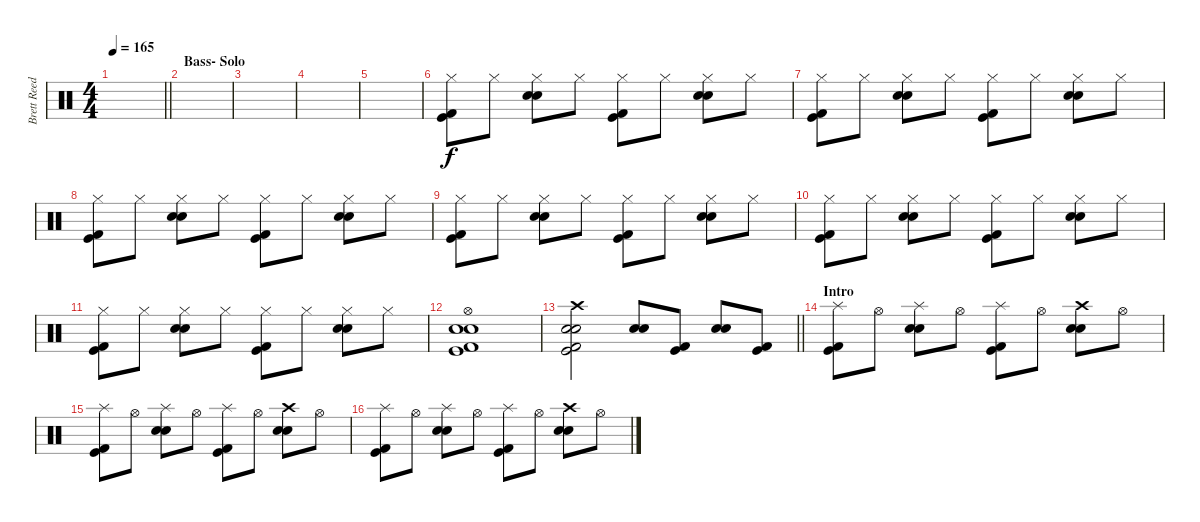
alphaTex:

\track ("Brett Reed" "Brett Reed") {instrument percussion}
\staff {score}
\articulation defaults
\ts (4 4)
\tempo 165
\clef neutral
\barLineRight lightlight
\ks c
|
\section ("" "Bass- Solo")
|
|
|
|
("Hi-Hat (closed)" "Kick (hit) 2" "Kick (hit)").8 "Hi-Hat (closed)".8 ("Hi-Hat (closed)" "Electric Snare (hit)" "Snare (hit) 2").8 "Hi-Hat (closed)".8 ("Hi-Hat (closed)" "Kick (hit) 2" "Kick (hit)").8 "Hi-Hat (closed)".8 ("Hi-Hat (closed)" "Electric Snare (hit)" "Snare (hit) 2").8 "Hi-Hat (closed)".8 |
("Hi-Hat (closed)" "Kick (hit) 2" "Kick (hit)").8 "Hi-Hat (closed)".8 ("Hi-Hat (closed)" "Electric Snare (hit)" "Snare (hit) 2").8 "Hi-Hat (closed)".8 ("Hi-Hat (closed)" "Kick (hit) 2" "Kick (hit)").8 "Hi-Hat (closed)".8 ("Hi-Hat (closed)" "Electric Snare (hit)" "Snare (hit) 2").8 "Hi-Hat (closed)".8 |
("Hi-Hat (closed)" "Kick (hit) 2" "Kick (hit)").8 "Hi-Hat (closed)".8 ("Hi-Hat (closed)" "Electric Snare (hit)" "Snare (hit) 2").8 "Hi-Hat (closed)".8 ("Hi-Hat (closed)" "Kick (hit) 2" "Kick (hit)").8 "Hi-Hat (closed)".8 ("Hi-Hat (closed)" "Electric Snare (hit)" "Snare (hit) 2").8 "Hi-Hat (closed)".8 |
("Hi-Hat (closed)" "Kick (hit) 2" "Kick (hit)").8 "Hi-Hat (closed)".8 ("Hi-Hat (closed)" "Electric Snare (hit)" "Snare (hit) 2").8 "Hi-Hat (closed)".8 ("Hi-Hat (closed)" "Kick (hit) 2" "Kick (hit)").8 "Hi-Hat (closed)".8 ("Hi-Hat (closed)" "Electric Snare (hit)" "Snare (hit) 2").8 "Hi-Hat (closed)".8 |
("Hi-Hat (closed)" "Kick (hit) 2" "Kick (hit)").8 "Hi-Hat (closed)".8 ("Hi-Hat (closed)" "Electric Snare (hit)" "Snare (hit) 2").8 "Hi-Hat (closed)".8 ("Hi-Hat (closed)" "Kick (hit) 2" "Kick (hit)").8 "Hi-Hat (closed)".8 ("Hi-Hat (closed)" "Electric Snare (hit)" "Snare (hit) 2").8 "Hi-Hat (closed)".8 |
("Hi-Hat (closed)" "Kick (hit) 2" "Kick (hit)").8 "Hi-Hat (closed)".8 ("Hi-Hat (closed)" "Electric Snare (hit)" "Snare (hit) 2").8 "Hi-Hat (closed)".8 ("Hi-Hat (closed)" "Kick (hit) 2" "Kick (hit)").8 "Hi-Hat (closed)".8 ("Hi-Hat (closed)" "Electric Snare (hit)" "Snare (hit) 2").8 "Hi-Hat (closed)".8 |
("Hi-Hat (open)" "Electric Snare (hit)" "Snare (hit) 2" "Kick (hit) 2" "Kick (hit)").1 |
\barLineRight lightlight
("Crash high (hit)" "Electric Snare (hit)" "Snare (hit) 2" "Kick (hit) 2" "Kick (hit)").2 ("Electric Snare (hit)" "Snare (hit) 2").8 ("Kick (hit) 2" "Kick (hit)").8 ("Electric Snare (hit)" "Snare (hit) 2").8 ("Kick (hit) 2" "Kick (hit)").8 |
\section ("" "Intro")
("Splash (hit)" "Kick (hit) 2" "Kick (hit)").8 "Hi-Hat (open)".8 ("Splash (hit)" "Electric Snare (hit)" "Snare (hit) 2").8 "Hi-Hat (open)".8 ("Splash (hit)" "Kick (hit) 2" "Kick (hit)").8 "Hi-Hat (open)".8 ("Crash high (hit)" "Electric Snare (hit)" "Snare (hit) 2").8 "Hi-Hat (open)".8 |
("Splash (hit)" "Kick (hit) 2" "Kick (hit)").8 "Hi-Hat (open)".8 ("Splash (hit)" "Electric Snare (hit)" "Snare (hit) 2").8 "Hi-Hat (open)".8 ("Splash (hit)" "Kick (hit) 2" "Kick (hit)").8 "Hi-Hat (open)".8 ("Crash high (hit)" "Electric Snare (hit)" "Snare (hit) 2").8 "Hi-Hat (open)".8 |
("Splash (hit)" "Kick (hit) 2" "Kick (hit)").8 "Hi-Hat (open)".8 ("Splash (hit)" "Electric Snare (hit)" "Snare (hit) 2").8 "Hi-Hat (open)".8 ("Splash (hit)" "Kick (hit) 2" "Kick (hit)").8 "Hi-Hat (open)".8 ("Crash high (hit)" "Electric Snare (hit)" "Snare (hit) 2").8 "Hi-Hat (open)".8
